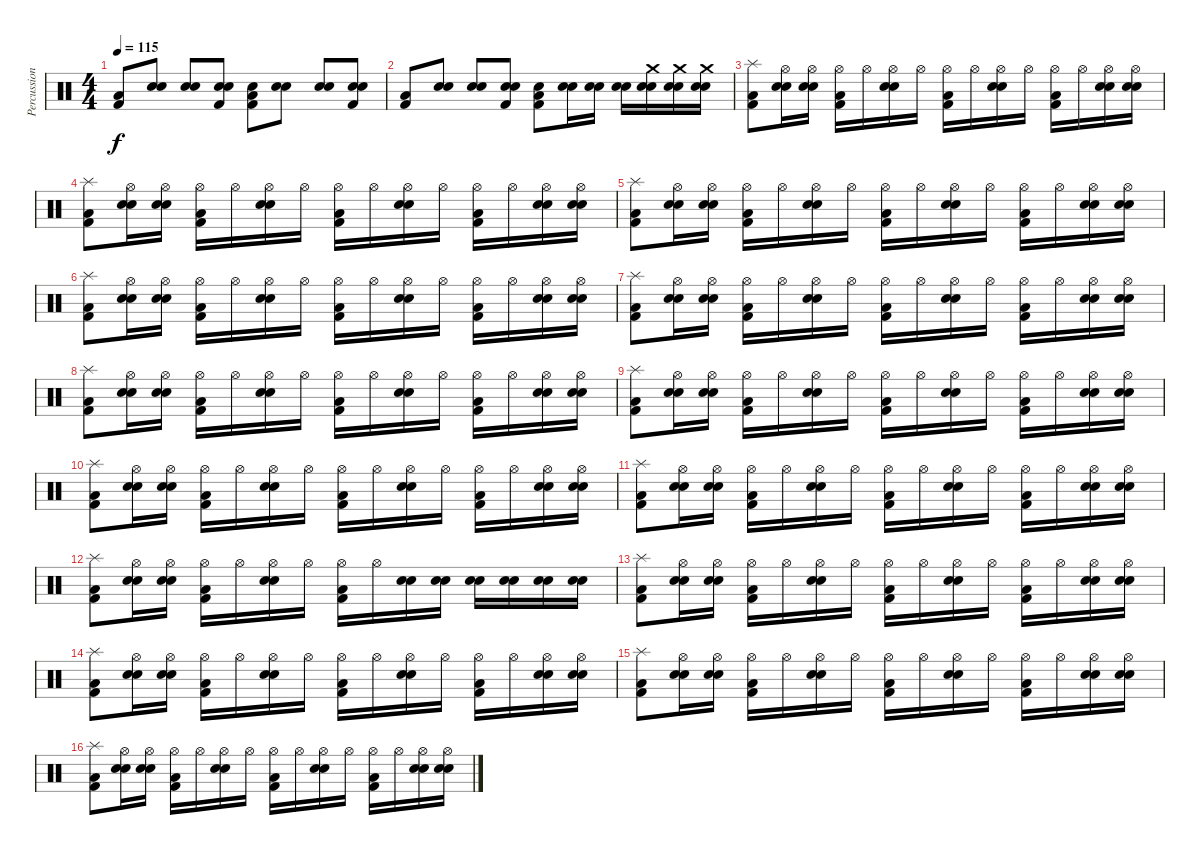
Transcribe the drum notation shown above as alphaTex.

\track ("Percussions" "Percussion") {instrument percussion}
\staff {score}
\articulation defaults
\ts (4 4)
\tempo 115
\clef neutral
\ks c
("Low Floor Tom (hit)" "Kick (hit) 2").8{dy f} ("Snare (hit) 2" "Electric Snare (hit)").8 ("Snare (hit) 2" "Electric Snare (hit)").8 ("Snare (hit) 2" "Electric Snare (hit)" "Kick (hit) 2").8 ("Snare (hit) 2" "Kick (hit) 2" "Low Floor Tom (hit)").8 ("Snare (hit) 2" "Electric Snare (hit)").8 ("Snare (hit) 2" "Electric Snare (hit)").8 ("Snare (hit) 2" "Electric Snare (hit)" "Kick (hit) 2").8 |
("Low Floor Tom (hit)" "Kick (hit) 2").8 ("Snare (hit) 2" "Electric Snare (hit)").8 ("Snare (hit) 2" "Electric Snare (hit)").8 ("Snare (hit) 2" "Electric Snare (hit)" "Kick (hit) 2").8 ("Snare (hit) 2" "Kick (hit) 2" "Low Floor Tom (hit)").8 ("Snare (hit) 2" "Electric Snare (hit)").16 ("Snare (hit) 2" "Electric Snare (hit)").16 ("Snare (hit) 2" "Electric Snare (hit)").16 ("Crash medium (hit)" "Snare (hit) 2" "Electric Snare (hit)").16 ("Crash medium (hit)" "Snare (hit) 2" "Electric Snare (hit)").16 ("Crash medium (hit)" "Snare (hit) 2" "Electric Snare (hit)").16 |
("Kick (hit) 2" "Low Floor Tom (hit)" "Splash (hit)").8 ("Hi-Hat (open)" "Snare (hit) 2" "Electric Snare (hit)").16 ("Hi-Hat (open)" "Snare (hit) 2" "Electric Snare (hit)").16 ("Hi-Hat (open)" "Low Floor Tom (hit)" "Kick (hit) 2").16 "Hi-Hat (open)".16 ("Hi-Hat (open)" "Electric Snare (hit)" "Snare (hit) 2").16 "Hi-Hat (open)".16 ("Hi-Hat (open)" "Low Floor Tom (hit)" "Kick (hit) 2").16 "Hi-Hat (open)".16 ("Hi-Hat (open)" "Snare (hit) 2" "Electric Snare (hit)").16 "Hi-Hat (open)".16 ("Hi-Hat (open)" "Low Floor Tom (hit)" "Kick (hit) 2").16 "Hi-Hat (open)".16 ("Hi-Hat (open)" "Snare (hit) 2" "Electric Snare (hit)").16 ("Hi-Hat (open)" "Snare (hit) 2" "Electric Snare (hit)").16 |
("Kick (hit) 2" "Low Floor Tom (hit)" "Splash (hit)").8 ("Hi-Hat (open)" "Snare (hit) 2" "Electric Snare (hit)").16 ("Hi-Hat (open)" "Snare (hit) 2" "Electric Snare (hit)").16 ("Hi-Hat (open)" "Low Floor Tom (hit)" "Kick (hit) 2").16 "Hi-Hat (open)".16 ("Hi-Hat (open)" "Electric Snare (hit)" "Snare (hit) 2").16 "Hi-Hat (open)".16 ("Hi-Hat (open)" "Low Floor Tom (hit)" "Kick (hit) 2").16 "Hi-Hat (open)".16 ("Hi-Hat (open)" "Snare (hit) 2" "Electric Snare (hit)").16 "Hi-Hat (open)".16 ("Hi-Hat (open)" "Low Floor Tom (hit)" "Kick (hit) 2").16 "Hi-Hat (open)".16 ("Hi-Hat (open)" "Snare (hit) 2" "Electric Snare (hit)").16 ("Hi-Hat (open)" "Snare (hit) 2" "Electric Snare (hit)").16 |
("Kick (hit) 2" "Low Floor Tom (hit)" "Splash (hit)").8 ("Hi-Hat (open)" "Snare (hit) 2" "Electric Snare (hit)").16 ("Hi-Hat (open)" "Snare (hit) 2" "Electric Snare (hit)").16 ("Hi-Hat (open)" "Low Floor Tom (hit)" "Kick (hit) 2").16 "Hi-Hat (open)".16 ("Hi-Hat (open)" "Electric Snare (hit)" "Snare (hit) 2").16 "Hi-Hat (open)".16 ("Hi-Hat (open)" "Low Floor Tom (hit)" "Kick (hit) 2").16 "Hi-Hat (open)".16 ("Hi-Hat (open)" "Snare (hit) 2" "Electric Snare (hit)").16 "Hi-Hat (open)".16 ("Hi-Hat (open)" "Low Floor Tom (hit)" "Kick (hit) 2").16 "Hi-Hat (open)".16 ("Hi-Hat (open)" "Snare (hit) 2" "Electric Snare (hit)").16 ("Hi-Hat (open)" "Snare (hit) 2" "Electric Snare (hit)").16 |
("Kick (hit) 2" "Low Floor Tom (hit)" "Splash (hit)").8 ("Hi-Hat (open)" "Snare (hit) 2" "Electric Snare (hit)").16 ("Hi-Hat (open)" "Snare (hit) 2" "Electric Snare (hit)").16 ("Hi-Hat (open)" "Low Floor Tom (hit)" "Kick (hit) 2").16 "Hi-Hat (open)".16 ("Hi-Hat (open)" "Electric Snare (hit)" "Snare (hit) 2").16 "Hi-Hat (open)".16 ("Hi-Hat (open)" "Low Floor Tom (hit)" "Kick (hit) 2").16 "Hi-Hat (open)".16 ("Hi-Hat (open)" "Snare (hit) 2" "Electric Snare (hit)").16 "Hi-Hat (open)".16 ("Hi-Hat (open)" "Low Floor Tom (hit)" "Kick (hit) 2").16 "Hi-Hat (open)".16 ("Hi-Hat (open)" "Snare (hit) 2" "Electric Snare (hit)").16 ("Hi-Hat (open)" "Snare (hit) 2" "Electric Snare (hit)").16 |
("Kick (hit) 2" "Low Floor Tom (hit)" "Splash (hit)").8 ("Hi-Hat (open)" "Snare (hit) 2" "Electric Snare (hit)").16 ("Hi-Hat (open)" "Snare (hit) 2" "Electric Snare (hit)").16 ("Hi-Hat (open)" "Low Floor Tom (hit)" "Kick (hit) 2").16 "Hi-Hat (open)".16 ("Hi-Hat (open)" "Electric Snare (hit)" "Snare (hit) 2").16 "Hi-Hat (open)".16 ("Hi-Hat (open)" "Low Floor Tom (hit)" "Kick (hit) 2").16 "Hi-Hat (open)".16 ("Hi-Hat (open)" "Snare (hit) 2" "Electric Snare (hit)").16 "Hi-Hat (open)".16 ("Hi-Hat (open)" "Low Floor Tom (hit)" "Kick (hit) 2").16 "Hi-Hat (open)".16 ("Hi-Hat (open)" "Snare (hit) 2" "Electric Snare (hit)").16 ("Hi-Hat (open)" "Snare (hit) 2" "Electric Snare (hit)").16 |
("Kick (hit) 2" "Low Floor Tom (hit)" "Splash (hit)").8 ("Hi-Hat (open)" "Snare (hit) 2" "Electric Snare (hit)").16 ("Hi-Hat (open)" "Snare (hit) 2" "Electric Snare (hit)").16 ("Hi-Hat (open)" "Low Floor Tom (hit)" "Kick (hit) 2").16 "Hi-Hat (open)".16 ("Hi-Hat (open)" "Electric Snare (hit)" "Snare (hit) 2").16 "Hi-Hat (open)".16 ("Hi-Hat (open)" "Low Floor Tom (hit)" "Kick (hit) 2").16 "Hi-Hat (open)".16 ("Hi-Hat (open)" "Snare (hit) 2" "Electric Snare (hit)").16 "Hi-Hat (open)".16 ("Hi-Hat (open)" "Low Floor Tom (hit)" "Kick (hit) 2").16 "Hi-Hat (open)".16 ("Hi-Hat (open)" "Snare (hit) 2" "Electric Snare (hit)").16 ("Hi-Hat (open)" "Snare (hit) 2" "Electric Snare (hit)").16 |
("Kick (hit) 2" "Low Floor Tom (hit)" "Splash (hit)").8 ("Hi-Hat (open)" "Snare (hit) 2" "Electric Snare (hit)").16 ("Hi-Hat (open)" "Snare (hit) 2" "Electric Snare (hit)").16 ("Hi-Hat (open)" "Low Floor Tom (hit)" "Kick (hit) 2").16 "Hi-Hat (open)".16 ("Hi-Hat (open)" "Electric Snare (hit)" "Snare (hit) 2").16 "Hi-Hat (open)".16 ("Hi-Hat (open)" "Low Floor Tom (hit)" "Kick (hit) 2").16 "Hi-Hat (open)".16 ("Hi-Hat (open)" "Snare (hit) 2" "Electric Snare (hit)").16 "Hi-Hat (open)".16 ("Hi-Hat (open)" "Low Floor Tom (hit)" "Kick (hit) 2").16 "Hi-Hat (open)".16 ("Hi-Hat (open)" "Snare (hit) 2" "Electric Snare (hit)").16 ("Hi-Hat (open)" "Snare (hit) 2" "Electric Snare (hit)").16 |
("Kick (hit) 2" "Low Floor Tom (hit)" "Splash (hit)").8 ("Hi-Hat (open)" "Snare (hit) 2" "Electric Snare (hit)").16 ("Hi-Hat (open)" "Snare (hit) 2" "Electric Snare (hit)").16 ("Hi-Hat (open)" "Low Floor Tom (hit)" "Kick (hit) 2").16 "Hi-Hat (open)".16 ("Hi-Hat (open)" "Electric Snare (hit)" "Snare (hit) 2").16 "Hi-Hat (open)".16 ("Hi-Hat (open)" "Low Floor Tom (hit)" "Kick (hit) 2").16 "Hi-Hat (open)".16 ("Hi-Hat (open)" "Snare (hit) 2" "Electric Snare (hit)").16 "Hi-Hat (open)".16 ("Hi-Hat (open)" "Low Floor Tom (hit)" "Kick (hit) 2").16 "Hi-Hat (open)".16 ("Hi-Hat (open)" "Snare (hit) 2" "Electric Snare (hit)").16 ("Hi-Hat (open)" "Snare (hit) 2" "Electric Snare (hit)").16 |
("Kick (hit) 2" "Low Floor Tom (hit)" "Splash (hit)").8 ("Hi-Hat (open)" "Snare (hit) 2" "Electric Snare (hit)").16 ("Hi-Hat (open)" "Snare (hit) 2" "Electric Snare (hit)").16 ("Hi-Hat (open)" "Low Floor Tom (hit)" "Kick (hit) 2").16 "Hi-Hat (open)".16 ("Hi-Hat (open)" "Electric Snare (hit)" "Snare (hit) 2").16 "Hi-Hat (open)".16 ("Hi-Hat (open)" "Low Floor Tom (hit)" "Kick (hit) 2").16 "Hi-Hat (open)".16 ("Hi-Hat (open)" "Snare (hit) 2" "Electric Snare (hit)").16 "Hi-Hat (open)".16 ("Hi-Hat (open)" "Low Floor Tom (hit)" "Kick (hit) 2").16 "Hi-Hat (open)".16 ("Hi-Hat (open)" "Snare (hit) 2" "Electric Snare (hit)").16 ("Hi-Hat (open)" "Snare (hit) 2" "Electric Snare (hit)").16 |
("Kick (hit) 2" "Low Floor Tom (hit)" "Splash (hit)").8 ("Hi-Hat (open)" "Snare (hit) 2" "Electric Snare (hit)").16 ("Hi-Hat (open)" "Snare (hit) 2" "Electric Snare (hit)").16 ("Hi-Hat (open)" "Low Floor Tom (hit)" "Kick (hit) 2").16 "Hi-Hat (open)".16 ("Hi-Hat (open)" "Electric Snare (hit)" "Snare (hit) 2").16 "Hi-Hat (open)".16 ("Hi-Hat (open)" "Low Floor Tom (hit)" "Kick (hit) 2").16 "Hi-Hat (open)".16 ("Snare (hit) 2" "Electric Snare (hit)").16 ("Snare (hit) 2" "Electric Snare (hit)").16 ("Snare (hit) 2" "Electric Snare (hit)").16 ("Snare (hit) 2" "Electric Snare (hit)").16 ("Snare (hit) 2" "Electric Snare (hit)").16 ("Snare (hit) 2" "Electric Snare (hit)").16 |
("Kick (hit) 2" "Low Floor Tom (hit)" "Splash (hit)").8 ("Hi-Hat (open)" "Snare (hit) 2" "Electric Snare (hit)").16 ("Hi-Hat (open)" "Snare (hit) 2" "Electric Snare (hit)").16 ("Hi-Hat (open)" "Low Floor Tom (hit)" "Kick (hit) 2").16 "Hi-Hat (open)".16 ("Hi-Hat (open)" "Electric Snare (hit)" "Snare (hit) 2").16 "Hi-Hat (open)".16 ("Hi-Hat (open)" "Low Floor Tom (hit)" "Kick (hit) 2").16 "Hi-Hat (open)".16 ("Hi-Hat (open)" "Snare (hit) 2" "Electric Snare (hit)").16 "Hi-Hat (open)".16 ("Hi-Hat (open)" "Low Floor Tom (hit)" "Kick (hit) 2").16 "Hi-Hat (open)".16 ("Hi-Hat (open)" "Snare (hit) 2" "Electric Snare (hit)").16 ("Hi-Hat (open)" "Snare (hit) 2" "Electric Snare (hit)").16 |
("Kick (hit) 2" "Low Floor Tom (hit)" "Splash (hit)").8 ("Hi-Hat (open)" "Snare (hit) 2" "Electric Snare (hit)").16 ("Hi-Hat (open)" "Snare (hit) 2" "Electric Snare (hit)").16 ("Hi-Hat (open)" "Low Floor Tom (hit)" "Kick (hit) 2").16 "Hi-Hat (open)".16 ("Hi-Hat (open)" "Electric Snare (hit)" "Snare (hit) 2").16 "Hi-Hat (open)".16 ("Hi-Hat (open)" "Low Floor Tom (hit)" "Kick (hit) 2").16 "Hi-Hat (open)".16 ("Hi-Hat (open)" "Snare (hit) 2" "Electric Snare (hit)").16 "Hi-Hat (open)".16 ("Hi-Hat (open)" "Low Floor Tom (hit)" "Kick (hit) 2").16 "Hi-Hat (open)".16 ("Hi-Hat (open)" "Snare (hit) 2" "Electric Snare (hit)").16 ("Hi-Hat (open)" "Snare (hit) 2" "Electric Snare (hit)").16 |
("Kick (hit) 2" "Low Floor Tom (hit)" "Splash (hit)").8 ("Hi-Hat (open)" "Snare (hit) 2" "Electric Snare (hit)").16 ("Hi-Hat (open)" "Snare (hit) 2" "Electric Snare (hit)").16 ("Hi-Hat (open)" "Low Floor Tom (hit)" "Kick (hit) 2").16 "Hi-Hat (open)".16 ("Hi-Hat (open)" "Electric Snare (hit)" "Snare (hit) 2").16 "Hi-Hat (open)".16 ("Hi-Hat (open)" "Low Floor Tom (hit)" "Kick (hit) 2").16 "Hi-Hat (open)".16 ("Hi-Hat (open)" "Snare (hit) 2" "Electric Snare (hit)").16 "Hi-Hat (open)".16 ("Hi-Hat (open)" "Low Floor Tom (hit)" "Kick (hit) 2").16 "Hi-Hat (open)".16 ("Hi-Hat (open)" "Snare (hit) 2" "Electric Snare (hit)").16 ("Hi-Hat (open)" "Snare (hit) 2" "Electric Snare (hit)").16 |
("Kick (hit) 2" "Low Floor Tom (hit)" "Splash (hit)").8 ("Hi-Hat (open)" "Snare (hit) 2" "Electric Snare (hit)").16 ("Hi-Hat (open)" "Snare (hit) 2" "Electric Snare (hit)").16 ("Hi-Hat (open)" "Low Floor Tom (hit)" "Kick (hit) 2").16 "Hi-Hat (open)".16 ("Hi-Hat (open)" "Electric Snare (hit)" "Snare (hit) 2").16 "Hi-Hat (open)".16 ("Hi-Hat (open)" "Low Floor Tom (hit)" "Kick (hit) 2").16 "Hi-Hat (open)".16 ("Hi-Hat (open)" "Snare (hit) 2" "Electric Snare (hit)").16 "Hi-Hat (open)".16 ("Hi-Hat (open)" "Low Floor Tom (hit)" "Kick (hit) 2").16 "Hi-Hat (open)".16 ("Hi-Hat (open)" "Snare (hit) 2" "Electric Snare (hit)").16 ("Hi-Hat (open)" "Snare (hit) 2" "Electric Snare (hit)").16
